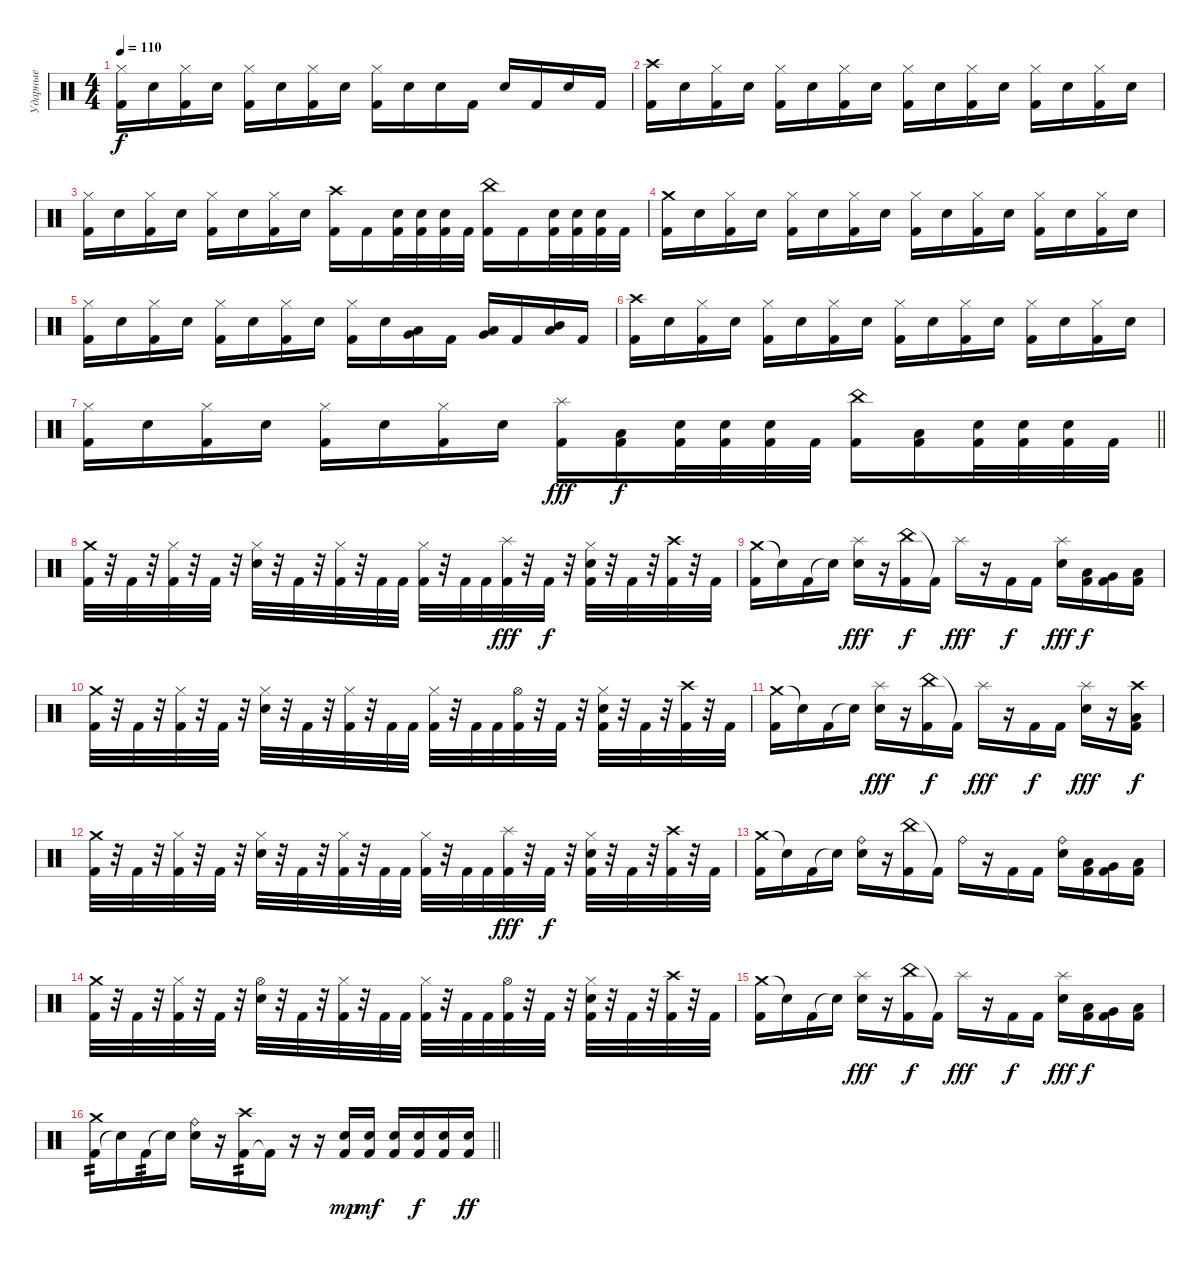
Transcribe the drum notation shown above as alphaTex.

\track ("Ударные" "Ударные") {instrument percussion}
\staff {score}
\articulation defaults
\ts (4 4)
\tempo 110
\clef neutral
\ks c
("Hi-Hat (closed)" "Kick (hit) 2").16{dy f} "Snare (hit) 2".16 ("Hi-Hat (closed)" "Kick (hit) 2").16 "Snare (hit) 2".16 ("Hi-Hat (closed)" "Kick (hit) 2").16 "Snare (hit) 2".16 ("Hi-Hat (closed)" "Kick (hit) 2").16 "Snare (hit) 2".16 ("Hi-Hat (closed)" "Kick (hit) 2").16 "Snare (hit) 2".16 "Snare (hit) 2".16 "Kick (hit) 2".16 "Snare (hit) 2".16 "Kick (hit) 2".16 "Snare (hit) 2".16 "Kick (hit) 2".16 |
("Crash high (hit)" "Kick (hit) 2").16 "Snare (hit) 2".16 ("Hi-Hat (closed)" "Kick (hit) 2").16 "Snare (hit) 2".16 ("Hi-Hat (closed)" "Kick (hit) 2").16 "Snare (hit) 2".16 ("Hi-Hat (closed)" "Kick (hit) 2").16 "Snare (hit) 2".16 ("Hi-Hat (closed)" "Kick (hit) 2").16 "Snare (hit) 2".16 ("Hi-Hat (closed)" "Kick (hit) 2").16 "Snare (hit) 2".16 ("Hi-Hat (closed)" "Kick (hit) 2").16 "Snare (hit) 2".16 ("Hi-Hat (closed)" "Kick (hit) 2").16 "Snare (hit) 2".16 |
("Hi-Hat (closed)" "Kick (hit) 2").16 "Snare (hit) 2".16 ("Hi-Hat (closed)" "Kick (hit) 2").16 "Snare (hit) 2".16 ("Hi-Hat (closed)" "Kick (hit) 2").16 "Snare (hit) 2".16 ("Hi-Hat (closed)" "Kick (hit) 2").16 "Snare (hit) 2".16 ("Crash high (hit)" "Kick (hit) 2").16 "Kick (hit) 2".16 ("Snare (hit) 2" "Kick (hit) 2").32 ("Snare (hit) 2" "Kick (hit) 2").32 ("Snare (hit) 2" "Kick (hit) 2").32 "Kick (hit) 2".32 ("China (hit)" "Kick (hit) 2").16 "Kick (hit) 2".16 ("Snare (hit) 2" "Kick (hit) 2").32 ("Snare (hit) 2" "Kick (hit) 2").32 ("Snare (hit) 2" "Kick (hit) 2").32 "Kick (hit) 2".32 |
("Crash medium (hit)" "Kick (hit) 2").16 "Snare (hit) 2".16 ("Hi-Hat (closed)" "Kick (hit) 2").16 "Snare (hit) 2".16 ("Hi-Hat (closed)" "Kick (hit) 2").16 "Snare (hit) 2".16 ("Hi-Hat (closed)" "Kick (hit) 2").16 "Snare (hit) 2".16 ("Hi-Hat (closed)" "Kick (hit) 2").16 "Snare (hit) 2".16 ("Hi-Hat (closed)" "Kick (hit) 2").16 "Snare (hit) 2".16 ("Hi-Hat (closed)" "Kick (hit) 2").16 "Snare (hit) 2".16 ("Hi-Hat (closed)" "Kick (hit) 2").16 "Snare (hit) 2".16 |
("Hi-Hat (closed)" "Kick (hit) 2").16 "Snare (hit) 2".16 ("Hi-Hat (closed)" "Kick (hit) 2").16 "Snare (hit) 2".16 ("Hi-Hat (closed)" "Kick (hit) 2").16 "Snare (hit) 2".16 ("Hi-Hat (closed)" "Kick (hit) 2").16 "Snare (hit) 2".16 ("Hi-Hat (closed)" "Kick (hit) 2").16 "Snare (hit) 2".16 ("Low Tom (hit)" "Very Low Tom (hit)").16 "Kick (hit) 2".16 ("Very Low Tom (hit)" "Low Floor Tom (hit)").16 "Kick (hit) 2".16 ("Low Floor Tom (hit)" "Mid Tom (hit)").16 "Kick (hit) 2".16 |
("Crash high (hit)" "Kick (hit) 2").16 "Snare (hit) 2".16 ("Hi-Hat (closed)" "Kick (hit) 2").16 "Snare (hit) 2".16 ("Hi-Hat (closed)" "Kick (hit) 2").16 "Snare (hit) 2".16 ("Hi-Hat (closed)" "Kick (hit) 2").16 "Snare (hit) 2".16 ("Hi-Hat (closed)" "Kick (hit) 2").16 "Snare (hit) 2".16 ("Hi-Hat (closed)" "Kick (hit) 2").16 "Snare (hit) 2".16 ("Hi-Hat (closed)" "Kick (hit) 2").16 "Snare (hit) 2".16 ("Hi-Hat (closed)" "Kick (hit) 2").16 "Snare (hit) 2".16 |
\barLineRight lightlight
("Hi-Hat (closed)" "Kick (hit) 2").16 "Snare (hit) 2".16 ("Hi-Hat (closed)" "Kick (hit) 2").16 "Snare (hit) 2".16 ("Hi-Hat (closed)" "Kick (hit) 2").16 "Snare (hit) 2".16 ("Hi-Hat (closed)" "Kick (hit) 2").16 "Snare (hit) 2".16 ("Splash (hit)" "Kick (hit) 2").16{dy fff} ("Low Tom (hit)" "Kick (hit) 2").16{dy f} ("Snare (hit) 2" "Kick (hit) 2").32 ("Snare (hit) 2" "Kick (hit) 2").32 ("Snare (hit) 2" "Kick (hit) 2").32 "Kick (hit) 2".32 ("China (hit)" "Kick (hit) 2").16 ("Low Floor Tom (hit)" "Kick (hit) 2").16 ("Snare (hit) 2" "Kick (hit) 2").32 ("Snare (hit) 2" "Kick (hit) 2").32 ("Snare (hit) 2" "Kick (hit) 2").32 "Kick (hit) 2".32 |
("Crash medium (hit)" "Kick (hit) 2").32 r.32 "Kick (hit) 2".32 r.32 ("Hi-Hat (closed)" "Kick (hit) 2").32 r.32 "Kick (hit) 2".32 r.32 ("Hi-Hat (closed)" "Snare (hit) 2").32 r.32 "Kick (hit) 2".32 r.32 ("Hi-Hat (closed)" "Kick (hit) 2").32 r.32 "Kick (hit) 2".32 "Kick (hit) 2".32 ("Hi-Hat (closed)" "Kick (hit) 2").32 r.32 "Kick (hit) 2".32 "Kick (hit) 2".32 ("Splash (hit)" "Kick (hit) 2").32{dy fff} r.32 "Kick (hit) 2".32{dy f} r.32 ("Hi-Hat (closed)" "Snare (hit) 2" "Kick (hit) 2").32 r.32 "Kick (hit) 2".32 r.32 ("Crash high (hit)" "Kick (hit) 2").32 r.32 "Kick (hit) 2".32 |
("Crash medium (hit)" "Kick (hit) 2").16 "Snare (hit)"{t}.16 "Kick (hit) 2".16 "Snare (hit)"{t}.16 ("Splash (hit)" "Snare (hit) 2").16{dy fff} r.16 ("China (hit)" "Kick (hit) 2").16{dy f} "Kick (hit) 2"{t}.16 "Splash (hit)".16{dy fff} r.16 "Kick (hit) 2".16{dy f} "Kick (hit) 2".16 ("Splash (hit)" "Snare (hit) 2").16{dy fff} ("Low Tom (hit)" "Kick (hit) 2").16{dy f} ("Very Low Tom (hit)" "Kick (hit) 2").16 ("Low Floor Tom (hit)" "Kick (hit) 2").16 |
("Crash medium (hit)" "Kick (hit) 2").32 r.32 "Kick (hit) 2".32 r.32 ("Hi-Hat (closed)" "Kick (hit) 2").32 r.32 "Kick (hit) 2".32 r.32 ("Hi-Hat (closed)" "Snare (hit) 2").32 r.32 "Kick (hit) 2".32 r.32 ("Hi-Hat (closed)" "Kick (hit) 2").32 r.32 "Kick (hit) 2".32 "Kick (hit) 2".32 ("Hi-Hat (closed)" "Kick (hit) 2").32 r.32 "Kick (hit) 2".32 "Kick (hit) 2".32 ("Hi-Hat (open)" "Kick (hit) 2").32 r.32 "Kick (hit) 2".32 r.32 ("Hi-Hat (closed)" "Snare (hit) 2" "Kick (hit) 2").32 r.32 "Kick (hit) 2".32 r.32 ("Crash high (hit)" "Kick (hit) 2").32 r.32 "Kick (hit) 2".32 |
("Crash medium (hit)" "Kick (hit) 2").16 "Snare (hit)"{t}.16 "Kick (hit) 2".16 "Snare (hit)"{t}.16 ("Splash (hit)" "Snare (hit) 2").16{dy fff} r.16 ("China (hit)" "Kick (hit) 2").16{dy f} "Kick (hit) 2"{t}.16 "Splash (hit)".16{dy fff} r.16 "Kick (hit) 2".16{dy f} "Kick (hit) 2".16 ("Splash (hit)" "Snare (hit) 2").16{dy fff} r.16 ("Crash high (hit)" "Low Tom (hit)" "Kick (hit) 2").16{dy f} |
("Crash medium (hit)" "Kick (hit) 2").32 r.32 "Kick (hit) 2".32 r.32 ("Hi-Hat (closed)" "Kick (hit) 2").32 r.32 "Kick (hit) 2".32 r.32 ("Hi-Hat (closed)" "Snare (hit) 2").32 r.32 "Kick (hit) 2".32 r.32 ("Hi-Hat (closed)" "Kick (hit) 2").32 r.32 "Kick (hit) 2".32 "Kick (hit) 2".32 ("Hi-Hat (closed)" "Kick (hit) 2").32 r.32 "Kick (hit) 2".32 "Kick (hit) 2".32 ("Splash (hit)" "Kick (hit) 2").32{dy fff} r.32 "Kick (hit) 2".32{dy f} r.32 ("Hi-Hat (closed)" "Snare (hit) 2" "Kick (hit) 2").32 r.32 "Kick (hit) 2".32 r.32 ("Crash high (hit)" "Kick (hit) 2").32 r.32 "Kick (hit) 2".32 |
("Crash medium (hit)" "Kick (hit) 2").16 "Snare (hit)"{t}.16 "Kick (hit) 2".16 "Snare (hit)"{t}.16 ("Ride (bell)" "Snare (hit) 2").16 r.16 ("China (hit)" "Kick (hit) 2").16 "Kick (hit) 2"{t}.16 "Ride (bell)".16 r.16 "Kick (hit) 2".16 "Kick (hit) 2".16 ("Ride (bell)" "Snare (hit) 2").16 ("Low Tom (hit)" "Kick (hit) 2").16 ("Very Low Tom (hit)" "Kick (hit) 2").16 ("Low Floor Tom (hit)" "Kick (hit) 2").16 |
("Crash medium (hit)" "Kick (hit) 2").32 r.32 "Kick (hit) 2".32 r.32 ("Hi-Hat (closed)" "Kick (hit) 2").32 r.32 "Kick (hit) 2".32 r.32 ("Hi-Hat (open)" "Snare (hit) 2").32 r.32 "Kick (hit) 2".32 r.32 ("Hi-Hat (closed)" "Kick (hit) 2").32 r.32 "Kick (hit) 2".32 "Kick (hit) 2".32 ("Hi-Hat (closed)" "Kick (hit) 2").32 r.32 "Kick (hit) 2".32 "Kick (hit) 2".32 ("Hi-Hat (open)" "Kick (hit) 2").32 r.32 "Kick (hit) 2".32 r.32 ("Hi-Hat (closed)" "Snare (hit) 2" "Kick (hit) 2").32 r.32 "Kick (hit) 2".32 r.32 ("Crash high (hit)" "Kick (hit) 2").32 r.32 "Kick (hit) 2".32 |
("Crash medium (hit)" "Kick (hit) 2").16 "Snare (hit)"{t}.16 "Kick (hit) 2".16 "Snare (hit)"{t}.16 ("Splash (hit)" "Snare (hit) 2").16{dy fff} r.16 ("China (hit)" "Kick (hit) 2").16{dy f} "Kick (hit) 2"{t}.16 "Splash (hit)".16{dy fff} r.16 "Kick (hit) 2".16{dy f} "Kick (hit) 2".16 ("Splash (hit)" "Snare (hit) 2").16{dy fff} ("Low Tom (hit)" "Kick (hit) 2").16{dy f} ("Very Low Tom (hit)" "Kick (hit) 2").16 ("Low Floor Tom (hit)" "Kick (hit) 2").16 |
\barLineRight lightlight
("Kick (hit) 2" "Crash medium (hit)").16{tp 2} "Snare (hit)"{t}.16 "Kick (hit) 2".16{tp 2} "Snare (hit)"{t}.16 ("Electric Snare (hit)" "Ride (bell)").16 r.16 ("Kick (hit) 2" "Crash high (hit)").16{tp 2} "Kick (hit) 2"{t}.16 r.16 r.16 ("Snare (hit) 2" "Kick (hit) 2").16{dy mp} ("Snare (hit) 2" "Kick (hit) 2").16{dy mf} ("Snare (hit) 2" "Kick (hit) 2").16 ("Snare (hit) 2" "Kick (hit) 2").16{dy f} ("Snare (hit) 2" "Kick (hit) 2").16 ("Snare (hit) 2" "Kick (hit) 2").16{dy ff}
